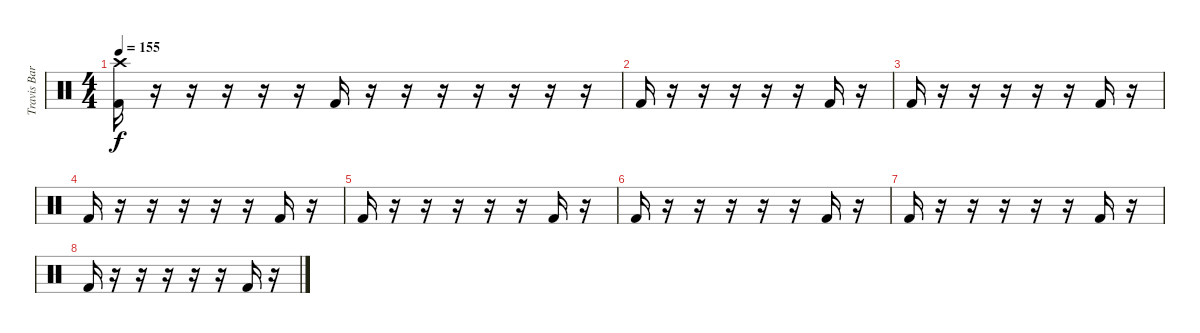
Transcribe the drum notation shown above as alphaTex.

\track ("Travis Barker Drums" "Travis Bar") {instrument percussion}
\staff {score}
\articulation defaults
\ts (4 4)
\tempo 155
\clef neutral
\ks c
("Crash high (hit)" "Kick (hit) 2").16{dy f} r.16 r.16 r.16 r.16 r.16 "Kick (hit) 2".16 r.16 r.16 r.16 r.16 r.16 r.16 r.16 |
"Kick (hit) 2".16 r.16 r.16 r.16 r.16 r.16 "Kick (hit) 2".16 r.16 |
"Kick (hit) 2".16 r.16 r.16 r.16 r.16 r.16 "Kick (hit) 2".16 r.16 |
"Kick (hit) 2".16 r.16 r.16 r.16 r.16 r.16 "Kick (hit) 2".16 r.16 |
"Kick (hit) 2".16 r.16 r.16 r.16 r.16 r.16 "Kick (hit) 2".16 r.16 |
"Kick (hit) 2".16 r.16 r.16 r.16 r.16 r.16 "Kick (hit) 2".16 r.16 |
"Kick (hit) 2".16 r.16 r.16 r.16 r.16 r.16 "Kick (hit) 2".16 r.16 |
"Kick (hit) 2".16 r.16 r.16 r.16 r.16 r.16 "Kick (hit) 2".16 r.16
